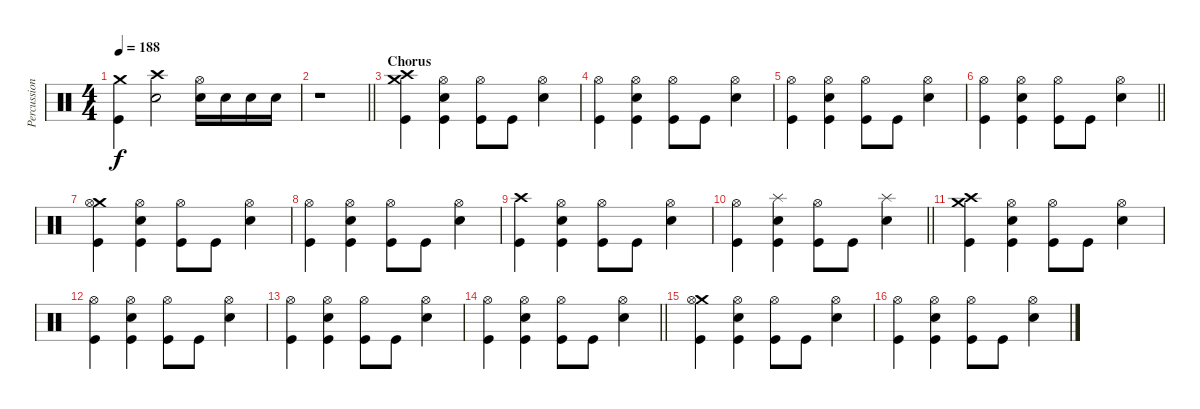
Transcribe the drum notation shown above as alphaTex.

\track ("Percussion" "Percussion") {instrument percussion}
\staff {score}
\articulation defaults
\ts (4 4)
\tempo 188
\clef neutral
\ks c
("Crash medium (hit)" "Kick (hit)").4{dy f} ("Crash high (hit)" "Electric Snare (hit)").2 ("Hi-Hat (open)" "Electric Snare (hit)").16 "Electric Snare (hit)".16 "Electric Snare (hit)".16 "Electric Snare (hit)".16 |
\barLineRight lightlight
r.1 |
\section ("" "Chorus")
("Crash high (hit)" "Crash medium (hit)" "Kick (hit)").4 ("Hi-Hat (open)" "Electric Snare (hit)" "Kick (hit)").4 ("Hi-Hat (open)" "Kick (hit)").8 "Kick (hit)".8 ("Hi-Hat (open)" "Electric Snare (hit)").4 |
("Hi-Hat (open)" "Kick (hit)").4 ("Hi-Hat (open)" "Electric Snare (hit)" "Kick (hit)").4 ("Hi-Hat (open)" "Kick (hit)").8 "Kick (hit)".8 ("Hi-Hat (open)" "Electric Snare (hit)").4 |
("Hi-Hat (open)" "Kick (hit)").4 ("Hi-Hat (open)" "Electric Snare (hit)" "Kick (hit)").4 ("Hi-Hat (open)" "Kick (hit)").8 "Kick (hit)".8 ("Hi-Hat (open)" "Electric Snare (hit)").4 |
\barLineRight lightlight
("Hi-Hat (open)" "Kick (hit)").4 ("Hi-Hat (open)" "Electric Snare (hit)" "Kick (hit)").4 ("Hi-Hat (open)" "Kick (hit)").8 "Kick (hit)".8 ("Hi-Hat (open)" "Electric Snare (hit)").4 |
("Crash medium (hit)" "Hi-Hat (open)" "Kick (hit)").4 ("Hi-Hat (open)" "Electric Snare (hit)" "Kick (hit)").4 ("Hi-Hat (open)" "Kick (hit)").8 "Kick (hit)".8 ("Hi-Hat (open)" "Electric Snare (hit)").4 |
("Hi-Hat (open)" "Kick (hit)").4 ("Hi-Hat (open)" "Electric Snare (hit)" "Kick (hit)").4 ("Hi-Hat (open)" "Kick (hit)").8 "Kick (hit)".8 ("Hi-Hat (open)" "Electric Snare (hit)").4 |
("Crash high (hit)" "Kick (hit)").4 ("Hi-Hat (open)" "Electric Snare (hit)" "Kick (hit)").4 ("Hi-Hat (open)" "Kick (hit)").8 "Kick (hit)".8 ("Hi-Hat (open)" "Electric Snare (hit)").4 |
\barLineRight lightlight
("Hi-Hat (open)" "Kick (hit)").4 ("Splash (hit)" "Electric Snare (hit)" "Kick (hit)").4 ("Hi-Hat (open)" "Kick (hit)").8 "Kick (hit)".8 ("Splash (hit)" "Electric Snare (hit)").4 |
("Crash high (hit)" "Crash medium (hit)" "Kick (hit)").4 ("Hi-Hat (open)" "Electric Snare (hit)" "Kick (hit)").4 ("Hi-Hat (open)" "Kick (hit)").8 "Kick (hit)".8 ("Hi-Hat (open)" "Electric Snare (hit)").4 |
("Hi-Hat (open)" "Kick (hit)").4 ("Hi-Hat (open)" "Electric Snare (hit)" "Kick (hit)").4 ("Hi-Hat (open)" "Kick (hit)").8 "Kick (hit)".8 ("Hi-Hat (open)" "Electric Snare (hit)").4 |
("Hi-Hat (open)" "Kick (hit)").4 ("Hi-Hat (open)" "Electric Snare (hit)" "Kick (hit)").4 ("Hi-Hat (open)" "Kick (hit)").8 "Kick (hit)".8 ("Hi-Hat (open)" "Electric Snare (hit)").4 |
\barLineRight lightlight
("Hi-Hat (open)" "Kick (hit)").4 ("Hi-Hat (open)" "Electric Snare (hit)" "Kick (hit)").4 ("Hi-Hat (open)" "Kick (hit)").8 "Kick (hit)".8 ("Hi-Hat (open)" "Electric Snare (hit)").4 |
("Crash medium (hit)" "Hi-Hat (open)" "Kick (hit)").4 ("Hi-Hat (open)" "Electric Snare (hit)" "Kick (hit)").4 ("Hi-Hat (open)" "Kick (hit)").8 "Kick (hit)".8 ("Hi-Hat (open)" "Electric Snare (hit)").4 |
("Hi-Hat (open)" "Kick (hit)").4 ("Hi-Hat (open)" "Electric Snare (hit)" "Kick (hit)").4 ("Hi-Hat (open)" "Kick (hit)").8 "Kick (hit)".8 ("Hi-Hat (open)" "Electric Snare (hit)").4
